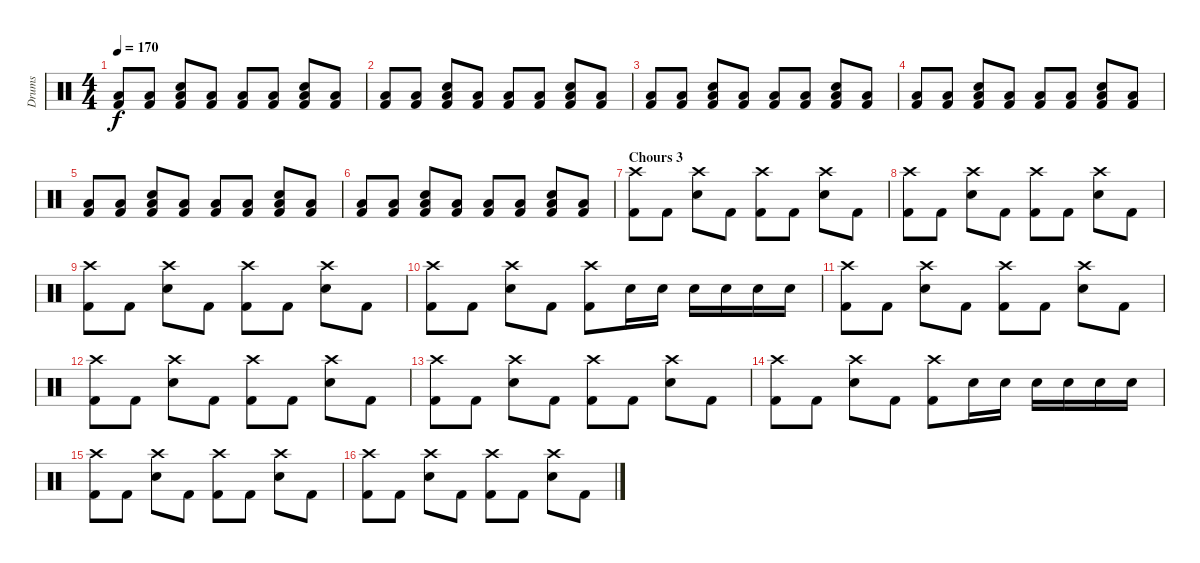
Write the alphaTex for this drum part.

\track ("Drums" "Drums") {instrument percussion}
\staff {score}
\articulation defaults
\ts (4 4)
\tempo 170
\clef neutral
\ks c
("Low Floor Tom (hit)" "Kick (hit) 2").8{dy f} ("Low Floor Tom (hit)" "Kick (hit) 2").8 ("Low Floor Tom (hit)" "Snare (hit) 2" "Kick (hit) 2").8 ("Low Floor Tom (hit)" "Kick (hit) 2").8 ("Low Floor Tom (hit)" "Kick (hit) 2").8 ("Low Floor Tom (hit)" "Kick (hit) 2").8 ("Low Floor Tom (hit)" "Snare (hit) 2" "Kick (hit) 2").8 ("Low Floor Tom (hit)" "Kick (hit) 2").8 |
("Low Floor Tom (hit)" "Kick (hit) 2").8 ("Low Floor Tom (hit)" "Kick (hit) 2").8 ("Low Floor Tom (hit)" "Snare (hit) 2" "Kick (hit) 2").8 ("Low Floor Tom (hit)" "Kick (hit) 2").8 ("Low Floor Tom (hit)" "Kick (hit) 2").8 ("Low Floor Tom (hit)" "Kick (hit) 2").8 ("Low Floor Tom (hit)" "Snare (hit) 2" "Kick (hit) 2").8 ("Low Floor Tom (hit)" "Kick (hit) 2").8 |
("Low Floor Tom (hit)" "Kick (hit) 2").8 ("Low Floor Tom (hit)" "Kick (hit) 2").8 ("Low Floor Tom (hit)" "Snare (hit) 2" "Kick (hit) 2").8 ("Low Floor Tom (hit)" "Kick (hit) 2").8 ("Low Floor Tom (hit)" "Kick (hit) 2").8 ("Low Floor Tom (hit)" "Kick (hit) 2").8 ("Low Floor Tom (hit)" "Snare (hit) 2" "Kick (hit) 2").8 ("Low Floor Tom (hit)" "Kick (hit) 2").8 |
("Low Floor Tom (hit)" "Kick (hit) 2").8 ("Low Floor Tom (hit)" "Kick (hit) 2").8 ("Low Floor Tom (hit)" "Snare (hit) 2" "Kick (hit) 2").8 ("Low Floor Tom (hit)" "Kick (hit) 2").8 ("Low Floor Tom (hit)" "Kick (hit) 2").8 ("Low Floor Tom (hit)" "Kick (hit) 2").8 ("Low Floor Tom (hit)" "Snare (hit) 2" "Kick (hit) 2").8 ("Low Floor Tom (hit)" "Kick (hit) 2").8 |
("Low Floor Tom (hit)" "Kick (hit) 2").8 ("Low Floor Tom (hit)" "Kick (hit) 2").8 ("Low Floor Tom (hit)" "Snare (hit) 2" "Kick (hit) 2").8 ("Low Floor Tom (hit)" "Kick (hit) 2").8 ("Low Floor Tom (hit)" "Kick (hit) 2").8 ("Low Floor Tom (hit)" "Kick (hit) 2").8 ("Low Floor Tom (hit)" "Snare (hit) 2" "Kick (hit) 2").8 ("Low Floor Tom (hit)" "Kick (hit) 2").8 |
("Low Floor Tom (hit)" "Kick (hit) 2").8 ("Low Floor Tom (hit)" "Kick (hit) 2").8 ("Low Floor Tom (hit)" "Snare (hit) 2" "Kick (hit) 2").8 ("Low Floor Tom (hit)" "Kick (hit) 2").8 ("Low Floor Tom (hit)" "Kick (hit) 2").8 ("Low Floor Tom (hit)" "Kick (hit) 2").8 ("Low Floor Tom (hit)" "Snare (hit) 2" "Kick (hit) 2").8 ("Low Floor Tom (hit)" "Kick (hit) 2").8 |
\section ("" "Chours 3")
("Crash high (hit)" "Kick (hit) 2").8 "Kick (hit) 2".8 ("Crash high (hit)" "Snare (hit) 2").8 "Kick (hit) 2".8 ("Crash high (hit)" "Kick (hit) 2").8 "Kick (hit) 2".8 ("Crash high (hit)" "Snare (hit) 2").8 "Kick (hit) 2".8 |
("Crash high (hit)" "Kick (hit) 2").8 "Kick (hit) 2".8 ("Crash high (hit)" "Snare (hit) 2").8 "Kick (hit) 2".8 ("Crash high (hit)" "Kick (hit) 2").8 "Kick (hit) 2".8 ("Crash high (hit)" "Snare (hit) 2").8 "Kick (hit) 2".8 |
("Crash high (hit)" "Kick (hit) 2").8 "Kick (hit) 2".8 ("Crash high (hit)" "Snare (hit) 2").8 "Kick (hit) 2".8 ("Crash high (hit)" "Kick (hit) 2").8 "Kick (hit) 2".8 ("Crash high (hit)" "Snare (hit) 2").8 "Kick (hit) 2".8 |
("Crash high (hit)" "Kick (hit) 2").8 "Kick (hit) 2".8 ("Crash high (hit)" "Snare (hit) 2").8 "Kick (hit) 2".8 ("Crash high (hit)" "Kick (hit) 2").8 "Snare (hit) 2".16 "Snare (hit) 2".16 "Snare (hit) 2".16 "Snare (hit) 2".16 "Snare (hit) 2".16 "Snare (hit) 2".16 |
("Crash high (hit)" "Kick (hit) 2").8 "Kick (hit) 2".8 ("Crash high (hit)" "Snare (hit) 2").8 "Kick (hit) 2".8 ("Crash high (hit)" "Kick (hit) 2").8 "Kick (hit) 2".8 ("Crash high (hit)" "Snare (hit) 2").8 "Kick (hit) 2".8 |
("Crash high (hit)" "Kick (hit) 2").8 "Kick (hit) 2".8 ("Crash high (hit)" "Snare (hit) 2").8 "Kick (hit) 2".8 ("Crash high (hit)" "Kick (hit) 2").8 "Kick (hit) 2".8 ("Crash high (hit)" "Snare (hit) 2").8 "Kick (hit) 2".8 |
("Crash high (hit)" "Kick (hit) 2").8 "Kick (hit) 2".8 ("Crash high (hit)" "Snare (hit) 2").8 "Kick (hit) 2".8 ("Crash high (hit)" "Kick (hit) 2").8 "Kick (hit) 2".8 ("Crash high (hit)" "Snare (hit) 2").8 "Kick (hit) 2".8 |
("Crash high (hit)" "Kick (hit) 2").8 "Kick (hit) 2".8 ("Crash high (hit)" "Snare (hit) 2").8 "Kick (hit) 2".8 ("Crash high (hit)" "Kick (hit) 2").8 "Snare (hit) 2".16 "Snare (hit) 2".16 "Snare (hit) 2".16 "Snare (hit) 2".16 "Snare (hit) 2".16 "Snare (hit) 2".16 |
("Crash high (hit)" "Kick (hit) 2").8 "Kick (hit) 2".8 ("Crash high (hit)" "Snare (hit) 2").8 "Kick (hit) 2".8 ("Crash high (hit)" "Kick (hit) 2").8 "Kick (hit) 2".8 ("Crash high (hit)" "Snare (hit) 2").8 "Kick (hit) 2".8 |
("Crash high (hit)" "Kick (hit) 2").8 "Kick (hit) 2".8 ("Crash high (hit)" "Snare (hit) 2").8 "Kick (hit) 2".8 ("Crash high (hit)" "Kick (hit) 2").8 "Kick (hit) 2".8 ("Crash high (hit)" "Snare (hit) 2").8 "Kick (hit) 2".8
